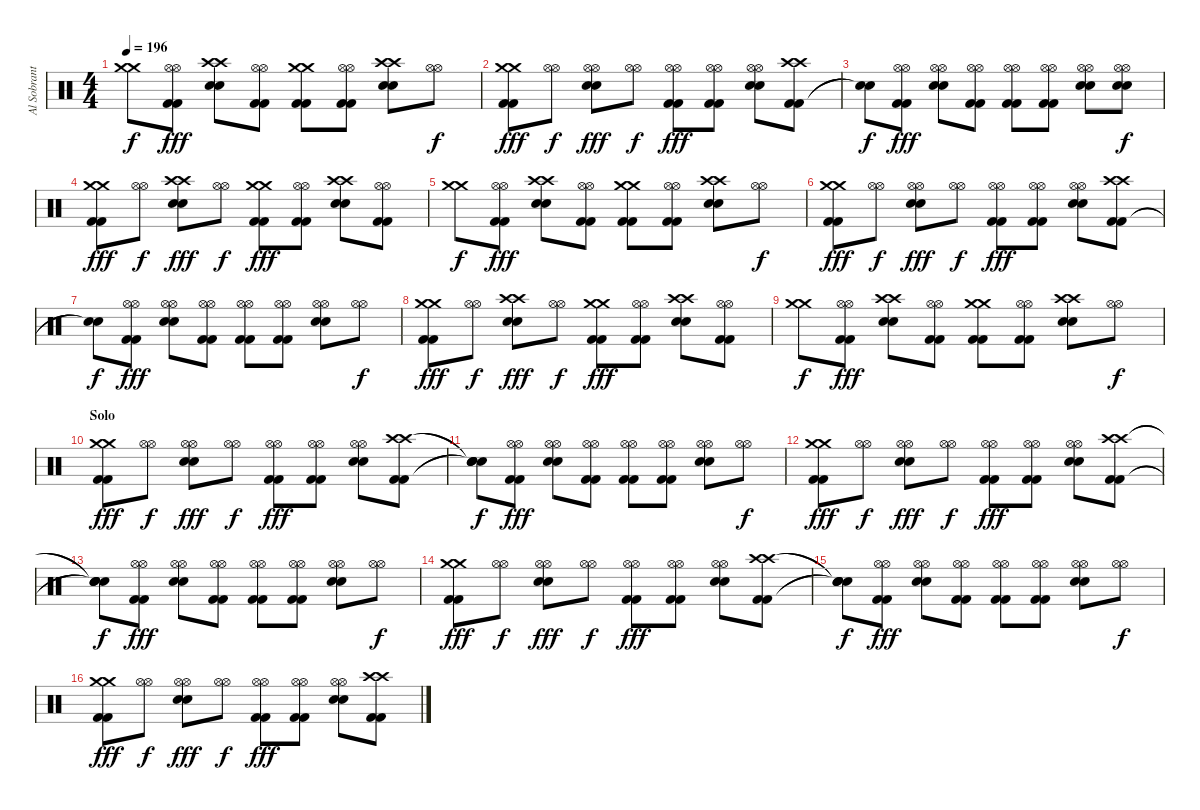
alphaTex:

\track ("Al Sobrante (Drums)" "Al Sobrant") {instrument percussion}
\staff {score}
\articulation defaults
\ts (4 4)
\tempo 196
\clef neutral
\ks c
("Crash medium (hit)" "Crash medium (hit)").8{dy f} ("Kick (hit) 2" "Kick (hit) 2" "Hi-Hat (open)" "Hi-Hat (open)").8{dy fff} ("Electric Snare (hit)" "Electric Snare (hit)" "Crash high (hit)" "Crash high (hit)").8 ("Kick (hit) 2" "Kick (hit) 2" "Hi-Hat (open)" "Hi-Hat (open)").8 ("Kick (hit) 2" "Kick (hit) 2" "Crash medium (hit)" "Crash medium (hit)").8 ("Kick (hit) 2" "Kick (hit) 2" "Hi-Hat (open)" "Hi-Hat (open)").8 ("Electric Snare (hit)" "Electric Snare (hit)" "Crash high (hit)" "Crash high (hit)").8 ("Hi-Hat (open)" "Hi-Hat (open)").8{dy f} |
("Kick (hit) 2" "Kick (hit) 2" "Crash medium (hit)" "Crash medium (hit)").8{dy fff} ("Hi-Hat (open)" "Hi-Hat (open)").8{dy f} ("Electric Snare (hit)" "Electric Snare (hit)" "Hi-Hat (open)" "Hi-Hat (open)").8{dy fff} ("Hi-Hat (open)" "Hi-Hat (open)").8{dy f} ("Kick (hit) 2" "Kick (hit) 2" "Hi-Hat (open)" "Hi-Hat (open)").8{dy fff} ("Kick (hit) 2" "Kick (hit) 2" "Hi-Hat (open)" "Hi-Hat (open)").8 ("Electric Snare (hit)" "Electric Snare (hit)" "Hi-Hat (open)" "Hi-Hat (open)").8 ("Kick (hit) 2" "Kick (hit) 2" "Crash high (hit)" "Crash high (hit)").8 |
("Snare (hit)"{t} "Snare (hit)"{t}).8{dy f} ("Kick (hit) 2" "Kick (hit) 2" "Hi-Hat (open)" "Hi-Hat (open)").8{dy fff} ("Electric Snare (hit)" "Electric Snare (hit)" "Hi-Hat (open)" "Hi-Hat (open)").8 ("Kick (hit) 2" "Kick (hit) 2" "Hi-Hat (open)" "Hi-Hat (open)").8 ("Kick (hit) 2" "Kick (hit) 2" "Hi-Hat (open)" "Hi-Hat (open)").8 ("Kick (hit) 2" "Kick (hit) 2" "Hi-Hat (open)" "Hi-Hat (open)").8 ("Electric Snare (hit)" "Electric Snare (hit)" "Hi-Hat (open)" "Hi-Hat (open)").8 ("Electric Snare (hit)" "Electric Snare (hit)" "Hi-Hat (open)" "Hi-Hat (open)").8{dy f} |
("Kick (hit) 2" "Kick (hit) 2" "Crash medium (hit)" "Crash medium (hit)").8{dy fff} ("Hi-Hat (open)" "Hi-Hat (open)").8{dy f} ("Electric Snare (hit)" "Electric Snare (hit)" "Crash high (hit)" "Crash high (hit)").8{dy fff} ("Hi-Hat (open)" "Hi-Hat (open)").8{dy f} ("Kick (hit) 2" "Kick (hit) 2" "Crash medium (hit)" "Crash medium (hit)").8{dy fff} ("Kick (hit) 2" "Kick (hit) 2" "Hi-Hat (open)" "Hi-Hat (open)").8 ("Electric Snare (hit)" "Electric Snare (hit)" "Crash high (hit)" "Crash high (hit)").8 ("Kick (hit) 2" "Kick (hit) 2" "Hi-Hat (open)" "Hi-Hat (open)").8 |
("Crash medium (hit)" "Crash medium (hit)").8{dy f} ("Kick (hit) 2" "Kick (hit) 2" "Hi-Hat (open)" "Hi-Hat (open)").8{dy fff} ("Electric Snare (hit)" "Electric Snare (hit)" "Crash high (hit)" "Crash high (hit)").8 ("Kick (hit) 2" "Kick (hit) 2" "Hi-Hat (open)" "Hi-Hat (open)").8 ("Kick (hit) 2" "Kick (hit) 2" "Crash medium (hit)" "Crash medium (hit)").8 ("Kick (hit) 2" "Kick (hit) 2" "Hi-Hat (open)" "Hi-Hat (open)").8 ("Electric Snare (hit)" "Electric Snare (hit)" "Crash high (hit)" "Crash high (hit)").8 ("Hi-Hat (open)" "Hi-Hat (open)").8{dy f} |
("Kick (hit) 2" "Kick (hit) 2" "Crash medium (hit)" "Crash medium (hit)").8{dy fff} ("Hi-Hat (open)" "Hi-Hat (open)").8{dy f} ("Electric Snare (hit)" "Electric Snare (hit)" "Hi-Hat (open)" "Hi-Hat (open)").8{dy fff} ("Hi-Hat (open)" "Hi-Hat (open)").8{dy f} ("Kick (hit) 2" "Kick (hit) 2" "Hi-Hat (open)" "Hi-Hat (open)").8{dy fff} ("Kick (hit) 2" "Kick (hit) 2" "Hi-Hat (open)" "Hi-Hat (open)").8 ("Electric Snare (hit)" "Electric Snare (hit)" "Hi-Hat (open)" "Hi-Hat (open)").8 ("Kick (hit) 2" "Kick (hit) 2" "Crash high (hit)" "Crash high (hit)").8 |
("Snare (hit)"{t} "Snare (hit)"{t}).8{dy f} ("Kick (hit) 2" "Kick (hit) 2" "Hi-Hat (open)" "Hi-Hat (open)").8{dy fff} ("Electric Snare (hit)" "Electric Snare (hit)" "Hi-Hat (open)" "Hi-Hat (open)").8 ("Kick (hit) 2" "Kick (hit) 2" "Hi-Hat (open)" "Hi-Hat (open)").8 ("Kick (hit) 2" "Kick (hit) 2" "Hi-Hat (open)" "Hi-Hat (open)").8 ("Kick (hit) 2" "Kick (hit) 2" "Hi-Hat (open)" "Hi-Hat (open)").8 ("Electric Snare (hit)" "Electric Snare (hit)" "Hi-Hat (open)" "Hi-Hat (open)").8 ("Hi-Hat (open)" "Hi-Hat (open)").8{dy f} |
("Kick (hit) 2" "Kick (hit) 2" "Crash medium (hit)" "Crash medium (hit)").8{dy fff} ("Hi-Hat (open)" "Hi-Hat (open)").8{dy f} ("Electric Snare (hit)" "Electric Snare (hit)" "Crash high (hit)" "Crash high (hit)").8{dy fff} ("Hi-Hat (open)" "Hi-Hat (open)").8{dy f} ("Kick (hit) 2" "Kick (hit) 2" "Crash medium (hit)" "Crash medium (hit)").8{dy fff} ("Kick (hit) 2" "Kick (hit) 2" "Hi-Hat (open)" "Hi-Hat (open)").8 ("Electric Snare (hit)" "Electric Snare (hit)" "Crash high (hit)" "Crash high (hit)").8 ("Kick (hit) 2" "Kick (hit) 2" "Hi-Hat (open)" "Hi-Hat (open)").8 |
("Crash medium (hit)" "Crash medium (hit)").8{dy f} ("Kick (hit) 2" "Kick (hit) 2" "Hi-Hat (open)" "Hi-Hat (open)").8{dy fff} ("Electric Snare (hit)" "Electric Snare (hit)" "Crash high (hit)" "Crash high (hit)").8 ("Kick (hit) 2" "Kick (hit) 2" "Hi-Hat (open)" "Hi-Hat (open)").8 ("Kick (hit) 2" "Kick (hit) 2" "Crash medium (hit)" "Crash medium (hit)").8 ("Kick (hit) 2" "Kick (hit) 2" "Hi-Hat (open)" "Hi-Hat (open)").8 ("Electric Snare (hit)" "Electric Snare (hit)" "Crash high (hit)" "Crash high (hit)").8 ("Hi-Hat (open)" "Hi-Hat (open)").8{dy f} |
\section ("" "Solo")
("Kick (hit) 2" "Kick (hit) 2" "Crash medium (hit)" "Crash medium (hit)").8{dy fff} ("Hi-Hat (open)" "Hi-Hat (open)").8{dy f} ("Electric Snare (hit)" "Electric Snare (hit)" "Hi-Hat (open)" "Hi-Hat (open)").8{dy fff} ("Hi-Hat (open)" "Hi-Hat (open)").8{dy f} ("Kick (hit) 2" "Kick (hit) 2" "Hi-Hat (open)" "Hi-Hat (open)").8{dy fff} ("Kick (hit) 2" "Kick (hit) 2" "Hi-Hat (open)" "Hi-Hat (open)").8 ("Electric Snare (hit)" "Electric Snare (hit)" "Hi-Hat (open)" "Hi-Hat (open)").8 ("Kick (hit) 2" "Kick (hit) 2" "Crash high (hit)" "Crash high (hit)").8 |
("Snare (hit)"{t} "Snare (hit)"{t} "Snare (hit)"{t} "Snare (hit)"{t}).8{dy f} ("Kick (hit) 2" "Kick (hit) 2" "Hi-Hat (open)" "Hi-Hat (open)").8{dy fff} ("Electric Snare (hit)" "Electric Snare (hit)" "Hi-Hat (open)" "Hi-Hat (open)").8 ("Kick (hit) 2" "Kick (hit) 2" "Hi-Hat (open)" "Hi-Hat (open)").8 ("Kick (hit) 2" "Kick (hit) 2" "Hi-Hat (open)" "Hi-Hat (open)").8 ("Kick (hit) 2" "Kick (hit) 2" "Hi-Hat (open)" "Hi-Hat (open)").8 ("Electric Snare (hit)" "Electric Snare (hit)" "Hi-Hat (open)" "Hi-Hat (open)").8 ("Hi-Hat (open)" "Hi-Hat (open)").8{dy f} |
("Kick (hit) 2" "Kick (hit) 2" "Crash medium (hit)" "Crash medium (hit)").8{dy fff} ("Hi-Hat (open)" "Hi-Hat (open)").8{dy f} ("Electric Snare (hit)" "Electric Snare (hit)" "Hi-Hat (open)" "Hi-Hat (open)").8{dy fff} ("Hi-Hat (open)" "Hi-Hat (open)").8{dy f} ("Kick (hit) 2" "Kick (hit) 2" "Hi-Hat (open)" "Hi-Hat (open)").8{dy fff} ("Kick (hit) 2" "Kick (hit) 2" "Hi-Hat (open)" "Hi-Hat (open)").8 ("Electric Snare (hit)" "Electric Snare (hit)" "Hi-Hat (open)" "Hi-Hat (open)").8 ("Kick (hit) 2" "Kick (hit) 2" "Crash high (hit)" "Crash high (hit)").8 |
("Snare (hit)"{t} "Snare (hit)"{t} "Snare (hit)"{t} "Snare (hit)"{t}).8{dy f} ("Kick (hit) 2" "Kick (hit) 2" "Hi-Hat (open)" "Hi-Hat (open)").8{dy fff} ("Electric Snare (hit)" "Electric Snare (hit)" "Hi-Hat (open)" "Hi-Hat (open)").8 ("Kick (hit) 2" "Kick (hit) 2" "Hi-Hat (open)" "Hi-Hat (open)").8 ("Kick (hit) 2" "Kick (hit) 2" "Hi-Hat (open)" "Hi-Hat (open)").8 ("Kick (hit) 2" "Kick (hit) 2" "Hi-Hat (open)" "Hi-Hat (open)").8 ("Electric Snare (hit)" "Electric Snare (hit)" "Hi-Hat (open)" "Hi-Hat (open)").8 ("Hi-Hat (open)" "Hi-Hat (open)").8{dy f} |
("Kick (hit) 2" "Kick (hit) 2" "Crash medium (hit)" "Crash medium (hit)").8{dy fff} ("Hi-Hat (open)" "Hi-Hat (open)").8{dy f} ("Electric Snare (hit)" "Electric Snare (hit)" "Hi-Hat (open)" "Hi-Hat (open)").8{dy fff} ("Hi-Hat (open)" "Hi-Hat (open)").8{dy f} ("Kick (hit) 2" "Kick (hit) 2" "Hi-Hat (open)" "Hi-Hat (open)").8{dy fff} ("Kick (hit) 2" "Kick (hit) 2" "Hi-Hat (open)" "Hi-Hat (open)").8 ("Electric Snare (hit)" "Electric Snare (hit)" "Hi-Hat (open)" "Hi-Hat (open)").8 ("Kick (hit) 2" "Kick (hit) 2" "Crash high (hit)" "Crash high (hit)").8 |
("Snare (hit)"{t} "Snare (hit)"{t} "Snare (hit)"{t} "Snare (hit)"{t}).8{dy f} ("Kick (hit) 2" "Kick (hit) 2" "Hi-Hat (open)" "Hi-Hat (open)").8{dy fff} ("Electric Snare (hit)" "Electric Snare (hit)" "Hi-Hat (open)" "Hi-Hat (open)").8 ("Kick (hit) 2" "Kick (hit) 2" "Hi-Hat (open)" "Hi-Hat (open)").8 ("Kick (hit) 2" "Kick (hit) 2" "Hi-Hat (open)" "Hi-Hat (open)").8 ("Kick (hit) 2" "Kick (hit) 2" "Hi-Hat (open)" "Hi-Hat (open)").8 ("Electric Snare (hit)" "Electric Snare (hit)" "Hi-Hat (open)" "Hi-Hat (open)").8 ("Hi-Hat (open)" "Hi-Hat (open)").8{dy f} |
("Kick (hit) 2" "Kick (hit) 2" "Crash medium (hit)" "Crash medium (hit)").8{dy fff} ("Hi-Hat (open)" "Hi-Hat (open)").8{dy f} ("Electric Snare (hit)" "Electric Snare (hit)" "Hi-Hat (open)" "Hi-Hat (open)").8{dy fff} ("Hi-Hat (open)" "Hi-Hat (open)").8{dy f} ("Kick (hit) 2" "Kick (hit) 2" "Hi-Hat (open)" "Hi-Hat (open)").8{dy fff} ("Kick (hit) 2" "Kick (hit) 2" "Hi-Hat (open)" "Hi-Hat (open)").8 ("Electric Snare (hit)" "Electric Snare (hit)" "Hi-Hat (open)" "Hi-Hat (open)").8 ("Kick (hit) 2" "Kick (hit) 2" "Crash high (hit)" "Crash high (hit)").8
